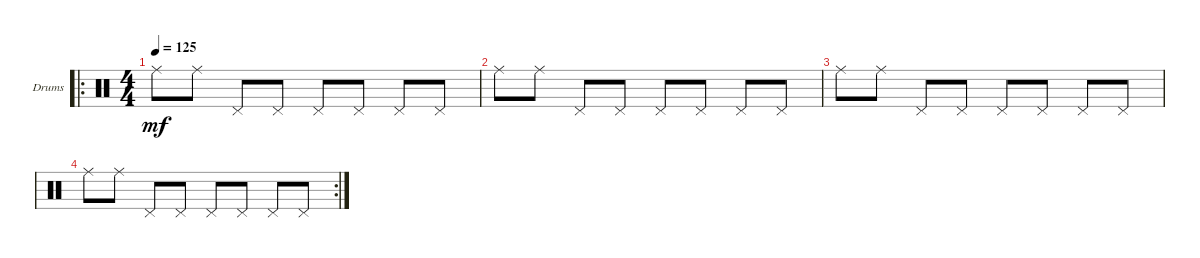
\defaultSystemsLayout 4
\bracketExtendMode groupsimilarinstruments
\firstSystemTrackNameOrientation horizontal
\otherSystemsTrackNameOrientation horizontal
\track ("Drumkit" "Drums") {instrument percussion}
\staff {score}
\articulation defaults
\ro
\ts (4 4)
\tempo 125
\clef neutral
\ks c "Ride (middle)".8{dy mf} "Ride (middle)".8 "Pedal Hi-Hat (hit)".8 "Pedal Hi-Hat (hit)".8 "Pedal Hi-Hat (hit)".8 "Pedal Hi-Hat (hit)".8 "Pedal Hi-Hat (hit)".8 "Pedal Hi-Hat (hit)".8
|
"Ride (middle)".8 "Ride (middle)".8 "Pedal Hi-Hat (hit)".8 "Pedal Hi-Hat (hit)".8 "Pedal Hi-Hat (hit)".8 "Pedal Hi-Hat (hit)".8 "Pedal Hi-Hat (hit)".8 "Pedal Hi-Hat (hit)".8 |
"Ride (middle)".8 "Ride (middle)".8 "Pedal Hi-Hat (hit)".8 "Pedal Hi-Hat (hit)".8 "Pedal Hi-Hat (hit)".8 "Pedal Hi-Hat (hit)".8 "Pedal Hi-Hat (hit)".8 "Pedal Hi-Hat (hit)".8 |
\rc 2 "Ride (middle)".8 "Ride (middle)".8 "Pedal Hi-Hat (hit)".8 "Pedal Hi-Hat (hit)".8 "Pedal Hi-Hat (hit)".8 "Pedal Hi-Hat (hit)".8 "Pedal Hi-Hat (hit)".8 "Pedal Hi-Hat (hit)".8
